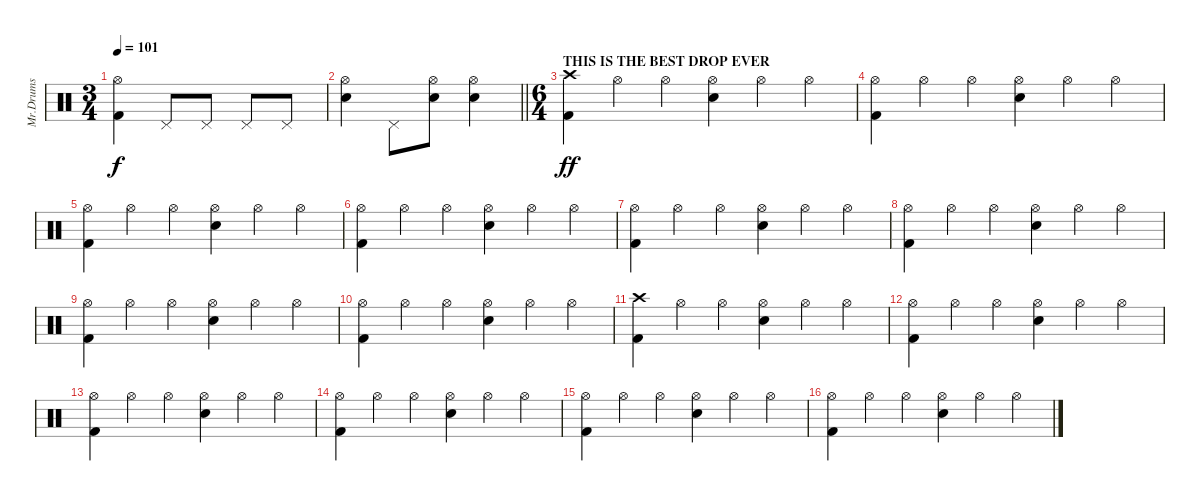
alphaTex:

\track ("Mr.Drums" "Mr.Drums") {instrument percussion}
\staff {score}
\articulation defaults
\ts (3 4)
\tempo 101
\clef neutral
\ks c
("Hi-Hat (open)" "Kick (hit) 2").4{dy f} "Pedal Hi-Hat (hit)".8 "Pedal Hi-Hat (hit)".8 "Pedal Hi-Hat (hit)".8 "Pedal Hi-Hat (hit)".8 |
\barLineRight lightlight
("Hi-Hat (open)" "Electric Snare (hit)").4 "Pedal Hi-Hat (hit)".8 ("Hi-Hat (open)" "Electric Snare (hit)").8 ("Hi-Hat (open)" "Electric Snare (hit)").4 |
\ts (6 4)
\section ("" "THIS IS THE BEST DROP EVER")
("Crash high (hit)" "Kick (hit) 2").4{dy ff} "Hi-Hat (open)".4 "Hi-Hat (open)".4 ("Hi-Hat (open)" "Electric Snare (hit)").4 "Hi-Hat (open)".4 "Hi-Hat (open)".4 |
("Hi-Hat (open)" "Kick (hit) 2").4 "Hi-Hat (open)".4 "Hi-Hat (open)".4 ("Hi-Hat (open)" "Electric Snare (hit)").4 "Hi-Hat (open)".4 "Hi-Hat (open)".4 |
("Hi-Hat (open)" "Kick (hit) 2").4 "Hi-Hat (open)".4 "Hi-Hat (open)".4 ("Hi-Hat (open)" "Electric Snare (hit)").4 "Hi-Hat (open)".4 "Hi-Hat (open)".4 |
("Hi-Hat (open)" "Kick (hit) 2").4 "Hi-Hat (open)".4 "Hi-Hat (open)".4 ("Hi-Hat (open)" "Electric Snare (hit)").4 "Hi-Hat (open)".4 "Hi-Hat (open)".4 |
("Hi-Hat (open)" "Kick (hit) 2").4 "Hi-Hat (open)".4 "Hi-Hat (open)".4 ("Hi-Hat (open)" "Electric Snare (hit)").4 "Hi-Hat (open)".4 "Hi-Hat (open)".4 |
("Hi-Hat (open)" "Kick (hit) 2").4 "Hi-Hat (open)".4 "Hi-Hat (open)".4 ("Hi-Hat (open)" "Electric Snare (hit)").4 "Hi-Hat (open)".4 "Hi-Hat (open)".4 |
("Hi-Hat (open)" "Kick (hit) 2").4 "Hi-Hat (open)".4 "Hi-Hat (open)".4 ("Hi-Hat (open)" "Electric Snare (hit)").4 "Hi-Hat (open)".4 "Hi-Hat (open)".4 |
("Hi-Hat (open)" "Kick (hit) 2").4 "Hi-Hat (open)".4 "Hi-Hat (open)".4 ("Hi-Hat (open)" "Electric Snare (hit)").4 "Hi-Hat (open)".4 "Hi-Hat (open)".4 |
("Crash high (hit)" "Kick (hit) 2").4 "Hi-Hat (open)".4 "Hi-Hat (open)".4 ("Hi-Hat (open)" "Electric Snare (hit)").4 "Hi-Hat (open)".4 "Hi-Hat (open)".4 |
("Hi-Hat (open)" "Kick (hit) 2").4 "Hi-Hat (open)".4 "Hi-Hat (open)".4 ("Hi-Hat (open)" "Electric Snare (hit)").4 "Hi-Hat (open)".4 "Hi-Hat (open)".4 |
("Hi-Hat (open)" "Kick (hit) 2").4 "Hi-Hat (open)".4 "Hi-Hat (open)".4 ("Hi-Hat (open)" "Electric Snare (hit)").4 "Hi-Hat (open)".4 "Hi-Hat (open)".4 |
("Hi-Hat (open)" "Kick (hit) 2").4 "Hi-Hat (open)".4 "Hi-Hat (open)".4 ("Hi-Hat (open)" "Electric Snare (hit)").4 "Hi-Hat (open)".4 "Hi-Hat (open)".4 |
("Hi-Hat (open)" "Kick (hit) 2").4 "Hi-Hat (open)".4 "Hi-Hat (open)".4 ("Hi-Hat (open)" "Electric Snare (hit)").4 "Hi-Hat (open)".4 "Hi-Hat (open)".4 |
("Hi-Hat (open)" "Kick (hit) 2").4 "Hi-Hat (open)".4 "Hi-Hat (open)".4 ("Hi-Hat (open)" "Electric Snare (hit)").4 "Hi-Hat (open)".4 "Hi-Hat (open)".4
